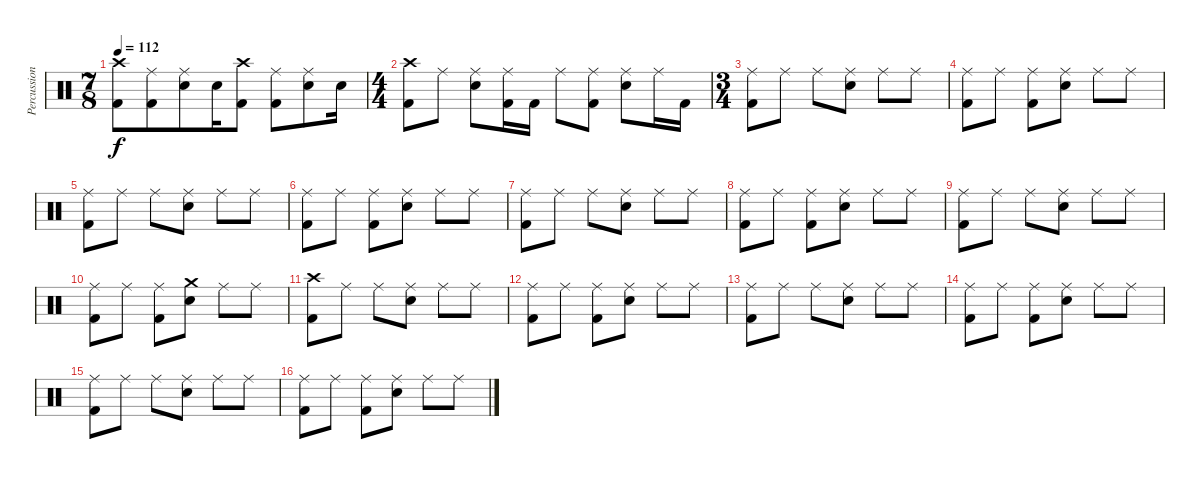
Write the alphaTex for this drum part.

\track ("Percussion" "Percussion") {instrument percussion}
\staff {score}
\articulation defaults
\ts (7 8)
\tempo 112
\clef neutral
\ks c
("Crash high (hit)" "Kick (hit) 2").8{dy f} ("Ride (middle)" "Kick (hit) 2").8 ("Ride (middle)" "Snare (hit) 2").8 "Snare (hit) 2".16 ("Crash high (hit)" "Kick (hit) 2").8 ("Ride (middle)" "Kick (hit) 2").8 ("Ride (middle)" "Snare (hit) 2").8 "Snare (hit) 2".16 |
\ts (4 4)
("Crash high (hit)" "Kick (hit) 2").8 "Ride (middle)".8 ("Ride (middle)" "Snare (hit) 2").8 ("Ride (middle)" "Kick (hit) 2").16 "Kick (hit) 2".16 "Ride (middle)".8 ("Ride (middle)" "Kick (hit) 2").8 ("Ride (middle)" "Snare (hit) 2").8 "Ride (middle)".16 "Kick (hit) 2".16 |
\ts (3 4)
("Ride (middle)" "Kick (hit) 2").8 "Ride (middle)".8 "Ride (middle)".8 ("Ride (middle)" "Snare (hit) 2").8 "Ride (middle)".8 "Ride (middle)".8 |
("Ride (middle)" "Kick (hit) 2").8 "Ride (middle)".8 ("Ride (middle)" "Kick (hit) 2").8 ("Ride (middle)" "Snare (hit) 2").8 "Ride (middle)".8 "Ride (middle)".8 |
("Ride (middle)" "Kick (hit) 2").8 "Ride (middle)".8 "Ride (middle)".8 ("Ride (middle)" "Snare (hit) 2").8 "Ride (middle)".8 "Ride (middle)".8 |
("Ride (middle)" "Kick (hit) 2").8 "Ride (middle)".8 ("Ride (middle)" "Kick (hit) 2").8 ("Ride (middle)" "Snare (hit) 2").8 "Ride (middle)".8 "Ride (middle)".8 |
("Ride (middle)" "Kick (hit) 2").8 "Ride (middle)".8 "Ride (middle)".8 ("Ride (middle)" "Snare (hit) 2").8 "Ride (middle)".8 "Ride (middle)".8 |
("Ride (middle)" "Kick (hit) 2").8 "Ride (middle)".8 ("Ride (middle)" "Kick (hit) 2").8 ("Ride (middle)" "Snare (hit) 2").8 "Ride (middle)".8 "Ride (middle)".8 |
("Ride (middle)" "Kick (hit) 2").8 "Ride (middle)".8 "Ride (middle)".8 ("Ride (middle)" "Snare (hit) 2").8 "Ride (middle)".8 "Ride (middle)".8 |
("Ride (middle)" "Kick (hit) 2").8 "Ride (middle)".8 ("Ride (middle)" "Kick (hit) 2").8 ("Crash medium (hit)" "Snare (hit) 2").8 "Ride (middle)".8 "Ride (middle)".8 |
("Crash high (hit)" "Kick (hit) 2").8 "Ride (middle)".8 "Ride (middle)".8 ("Ride (middle)" "Snare (hit) 2").8 "Ride (middle)".8 "Ride (middle)".8 |
("Ride (middle)" "Kick (hit) 2").8 "Ride (middle)".8 ("Ride (middle)" "Kick (hit) 2").8 ("Ride (middle)" "Snare (hit) 2").8 "Ride (middle)".8 "Ride (middle)".8 |
("Ride (middle)" "Kick (hit) 2").8 "Ride (middle)".8 "Ride (middle)".8 ("Ride (middle)" "Snare (hit) 2").8 "Ride (middle)".8 "Ride (middle)".8 |
("Ride (middle)" "Kick (hit) 2").8 "Ride (middle)".8 ("Ride (middle)" "Kick (hit) 2").8 ("Ride (middle)" "Snare (hit) 2").8 "Ride (middle)".8 "Ride (middle)".8 |
("Ride (middle)" "Kick (hit) 2").8 "Ride (middle)".8 "Ride (middle)".8 ("Ride (middle)" "Snare (hit) 2").8 "Ride (middle)".8 "Ride (middle)".8 |
("Ride (middle)" "Kick (hit) 2").8 "Ride (middle)".8 ("Ride (middle)" "Kick (hit) 2").8 ("Ride (middle)" "Snare (hit) 2").8 "Ride (middle)".8 "Ride (middle)".8
